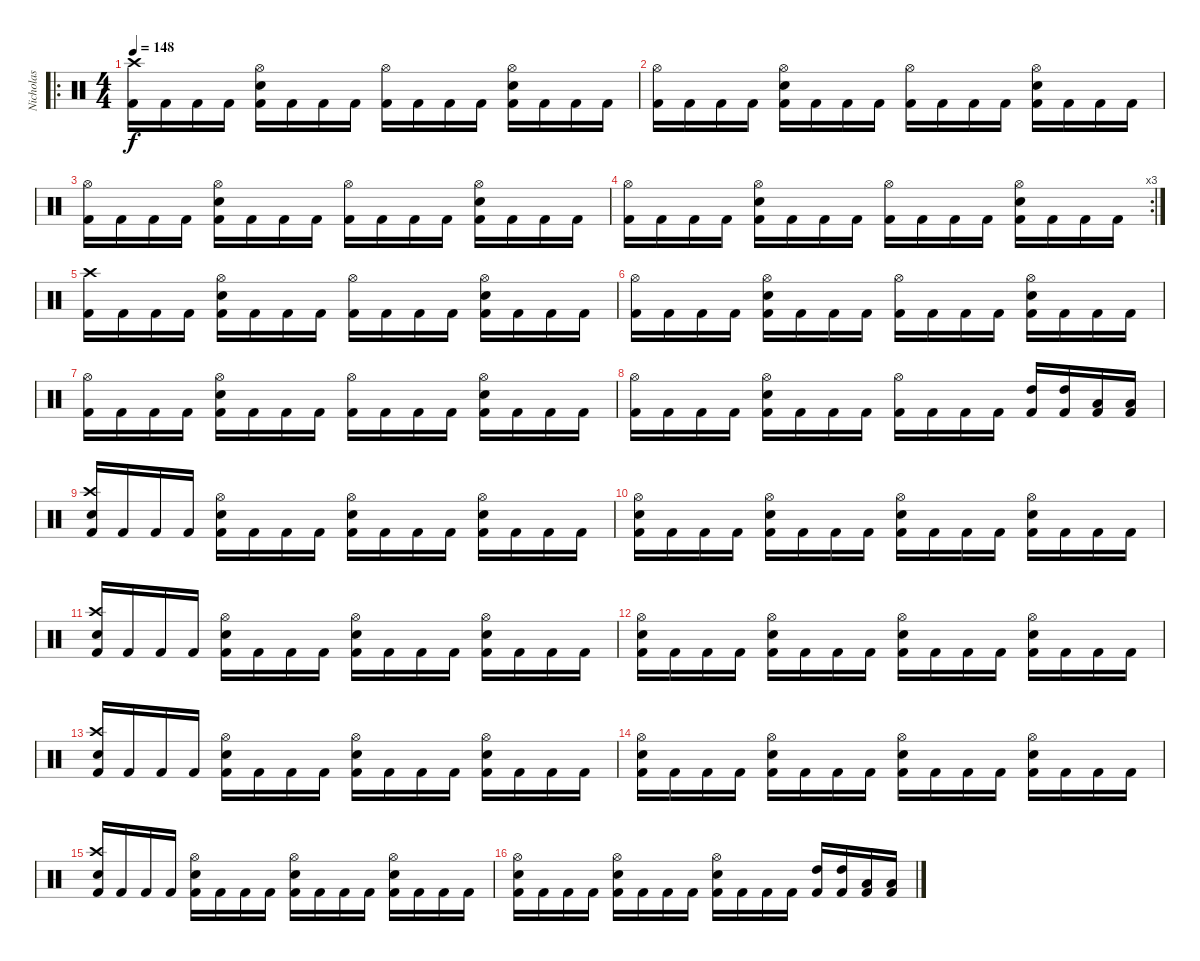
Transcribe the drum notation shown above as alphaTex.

\track ("Nicholas" "Nicholas") {instrument percussion}
\staff {score}
\articulation defaults
\ro
\ts (4 4)
\tempo 148
\clef neutral
\ks c
("Kick (hit) 2" "Crash high (hit)").16{dy f} "Kick (hit) 2".16 "Kick (hit) 2".16 "Kick (hit) 2".16 ("Kick (hit) 2" "Snare (hit) 2" "Hi-Hat (open)").16 "Kick (hit) 2".16 "Kick (hit) 2".16 "Kick (hit) 2".16 ("Kick (hit) 2" "Hi-Hat (open)").16 "Kick (hit) 2".16 "Kick (hit) 2".16 "Kick (hit) 2".16 ("Kick (hit) 2" "Snare (hit) 2" "Hi-Hat (open)").16 "Kick (hit) 2".16 "Kick (hit) 2".16 "Kick (hit) 2".16 |
("Kick (hit) 2" "Hi-Hat (open)").16 "Kick (hit) 2".16 "Kick (hit) 2".16 "Kick (hit) 2".16 ("Kick (hit) 2" "Snare (hit) 2" "Hi-Hat (open)").16 "Kick (hit) 2".16 "Kick (hit) 2".16 "Kick (hit) 2".16 ("Kick (hit) 2" "Hi-Hat (open)").16 "Kick (hit) 2".16 "Kick (hit) 2".16 "Kick (hit) 2".16 ("Kick (hit) 2" "Snare (hit) 2" "Hi-Hat (open)").16 "Kick (hit) 2".16 "Kick (hit) 2".16 "Kick (hit) 2".16 |
("Kick (hit) 2" "Hi-Hat (open)").16 "Kick (hit) 2".16 "Kick (hit) 2".16 "Kick (hit) 2".16 ("Kick (hit) 2" "Snare (hit) 2" "Hi-Hat (open)").16 "Kick (hit) 2".16 "Kick (hit) 2".16 "Kick (hit) 2".16 ("Kick (hit) 2" "Hi-Hat (open)").16 "Kick (hit) 2".16 "Kick (hit) 2".16 "Kick (hit) 2".16 ("Kick (hit) 2" "Snare (hit) 2" "Hi-Hat (open)").16 "Kick (hit) 2".16 "Kick (hit) 2".16 "Kick (hit) 2".16 |
\rc 3
("Kick (hit) 2" "Hi-Hat (open)").16 "Kick (hit) 2".16 "Kick (hit) 2".16 "Kick (hit) 2".16 ("Kick (hit) 2" "Snare (hit) 2" "Hi-Hat (open)").16 "Kick (hit) 2".16 "Kick (hit) 2".16 "Kick (hit) 2".16 ("Kick (hit) 2" "Hi-Hat (open)").16 "Kick (hit) 2".16 "Kick (hit) 2".16 "Kick (hit) 2".16 ("Kick (hit) 2" "Snare (hit) 2" "Hi-Hat (open)").16 "Kick (hit) 2".16 "Kick (hit) 2".16 "Kick (hit) 2".16 |
("Kick (hit) 2" "Crash high (hit)").16 "Kick (hit) 2".16 "Kick (hit) 2".16 "Kick (hit) 2".16 ("Kick (hit) 2" "Snare (hit) 2" "Hi-Hat (open)").16 "Kick (hit) 2".16 "Kick (hit) 2".16 "Kick (hit) 2".16 ("Kick (hit) 2" "Hi-Hat (open)").16 "Kick (hit) 2".16 "Kick (hit) 2".16 "Kick (hit) 2".16 ("Kick (hit) 2" "Snare (hit) 2" "Hi-Hat (open)").16 "Kick (hit) 2".16 "Kick (hit) 2".16 "Kick (hit) 2".16 |
("Kick (hit) 2" "Hi-Hat (open)").16 "Kick (hit) 2".16 "Kick (hit) 2".16 "Kick (hit) 2".16 ("Kick (hit) 2" "Snare (hit) 2" "Hi-Hat (open)").16 "Kick (hit) 2".16 "Kick (hit) 2".16 "Kick (hit) 2".16 ("Kick (hit) 2" "Hi-Hat (open)").16 "Kick (hit) 2".16 "Kick (hit) 2".16 "Kick (hit) 2".16 ("Kick (hit) 2" "Snare (hit) 2" "Hi-Hat (open)").16 "Kick (hit) 2".16 "Kick (hit) 2".16 "Kick (hit) 2".16 |
("Kick (hit) 2" "Hi-Hat (open)").16 "Kick (hit) 2".16 "Kick (hit) 2".16 "Kick (hit) 2".16 ("Kick (hit) 2" "Snare (hit) 2" "Hi-Hat (open)").16 "Kick (hit) 2".16 "Kick (hit) 2".16 "Kick (hit) 2".16 ("Kick (hit) 2" "Hi-Hat (open)").16 "Kick (hit) 2".16 "Kick (hit) 2".16 "Kick (hit) 2".16 ("Kick (hit) 2" "Snare (hit) 2" "Hi-Hat (open)").16 "Kick (hit) 2".16 "Kick (hit) 2".16 "Kick (hit) 2".16 |
("Kick (hit) 2" "Hi-Hat (open)").16 "Kick (hit) 2".16 "Kick (hit) 2".16 "Kick (hit) 2".16 ("Kick (hit) 2" "Snare (hit) 2" "Hi-Hat (open)").16 "Kick (hit) 2".16 "Kick (hit) 2".16 "Kick (hit) 2".16 ("Kick (hit) 2" "Hi-Hat (open)").16 "Kick (hit) 2".16 "Kick (hit) 2".16 "Kick (hit) 2".16 ("Kick (hit) 2" "High Tom (hit)").16 ("Kick (hit) 2" "High Tom (hit)").16 ("Kick (hit) 2" "Low Tom (hit)").16 ("Kick (hit) 2" "Low Tom (hit)").16 |
("Kick (hit) 2" "Snare (hit) 2" "Crash high (hit)").16 "Kick (hit) 2".16 "Kick (hit) 2".16 "Kick (hit) 2".16 ("Kick (hit) 2" "Snare (hit) 2" "Hi-Hat (open)").16 "Kick (hit) 2".16 "Kick (hit) 2".16 "Kick (hit) 2".16 ("Kick (hit) 2" "Snare (hit) 2" "Hi-Hat (open)").16 "Kick (hit) 2".16 "Kick (hit) 2".16 "Kick (hit) 2".16 ("Kick (hit) 2" "Snare (hit) 2" "Hi-Hat (open)").16 "Kick (hit) 2".16 "Kick (hit) 2".16 "Kick (hit) 2".16 |
("Kick (hit) 2" "Snare (hit) 2" "Hi-Hat (open)").16 "Kick (hit) 2".16 "Kick (hit) 2".16 "Kick (hit) 2".16 ("Kick (hit) 2" "Snare (hit) 2" "Hi-Hat (open)").16 "Kick (hit) 2".16 "Kick (hit) 2".16 "Kick (hit) 2".16 ("Kick (hit) 2" "Snare (hit) 2" "Hi-Hat (open)").16 "Kick (hit) 2".16 "Kick (hit) 2".16 "Kick (hit) 2".16 ("Kick (hit) 2" "Snare (hit) 2" "Hi-Hat (open)").16 "Kick (hit) 2".16 "Kick (hit) 2".16 "Kick (hit) 2".16 |
("Kick (hit) 2" "Snare (hit) 2" "Crash high (hit)").16 "Kick (hit) 2".16 "Kick (hit) 2".16 "Kick (hit) 2".16 ("Kick (hit) 2" "Snare (hit) 2" "Hi-Hat (open)").16 "Kick (hit) 2".16 "Kick (hit) 2".16 "Kick (hit) 2".16 ("Kick (hit) 2" "Snare (hit) 2" "Hi-Hat (open)").16 "Kick (hit) 2".16 "Kick (hit) 2".16 "Kick (hit) 2".16 ("Kick (hit) 2" "Snare (hit) 2" "Hi-Hat (open)").16 "Kick (hit) 2".16 "Kick (hit) 2".16 "Kick (hit) 2".16 |
("Kick (hit) 2" "Snare (hit) 2" "Hi-Hat (open)").16 "Kick (hit) 2".16 "Kick (hit) 2".16 "Kick (hit) 2".16 ("Kick (hit) 2" "Snare (hit) 2" "Hi-Hat (open)").16 "Kick (hit) 2".16 "Kick (hit) 2".16 "Kick (hit) 2".16 ("Kick (hit) 2" "Snare (hit) 2" "Hi-Hat (open)").16 "Kick (hit) 2".16 "Kick (hit) 2".16 "Kick (hit) 2".16 ("Kick (hit) 2" "Snare (hit) 2" "Hi-Hat (open)").16 "Kick (hit) 2".16 "Kick (hit) 2".16 "Kick (hit) 2".16 |
("Kick (hit) 2" "Snare (hit) 2" "Crash high (hit)").16 "Kick (hit) 2".16 "Kick (hit) 2".16 "Kick (hit) 2".16 ("Kick (hit) 2" "Snare (hit) 2" "Hi-Hat (open)").16 "Kick (hit) 2".16 "Kick (hit) 2".16 "Kick (hit) 2".16 ("Kick (hit) 2" "Snare (hit) 2" "Hi-Hat (open)").16 "Kick (hit) 2".16 "Kick (hit) 2".16 "Kick (hit) 2".16 ("Kick (hit) 2" "Snare (hit) 2" "Hi-Hat (open)").16 "Kick (hit) 2".16 "Kick (hit) 2".16 "Kick (hit) 2".16 |
("Kick (hit) 2" "Snare (hit) 2" "Hi-Hat (open)").16 "Kick (hit) 2".16 "Kick (hit) 2".16 "Kick (hit) 2".16 ("Kick (hit) 2" "Snare (hit) 2" "Hi-Hat (open)").16 "Kick (hit) 2".16 "Kick (hit) 2".16 "Kick (hit) 2".16 ("Kick (hit) 2" "Snare (hit) 2" "Hi-Hat (open)").16 "Kick (hit) 2".16 "Kick (hit) 2".16 "Kick (hit) 2".16 ("Kick (hit) 2" "Snare (hit) 2" "Hi-Hat (open)").16 "Kick (hit) 2".16 "Kick (hit) 2".16 "Kick (hit) 2".16 |
("Kick (hit) 2" "Snare (hit) 2" "Crash high (hit)").16 "Kick (hit) 2".16 "Kick (hit) 2".16 "Kick (hit) 2".16 ("Kick (hit) 2" "Snare (hit) 2" "Hi-Hat (open)").16 "Kick (hit) 2".16 "Kick (hit) 2".16 "Kick (hit) 2".16 ("Kick (hit) 2" "Snare (hit) 2" "Hi-Hat (open)").16 "Kick (hit) 2".16 "Kick (hit) 2".16 "Kick (hit) 2".16 ("Kick (hit) 2" "Snare (hit) 2" "Hi-Hat (open)").16 "Kick (hit) 2".16 "Kick (hit) 2".16 "Kick (hit) 2".16 |
("Kick (hit) 2" "Snare (hit) 2" "Hi-Hat (open)").16 "Kick (hit) 2".16 "Kick (hit) 2".16 "Kick (hit) 2".16 ("Kick (hit) 2" "Snare (hit) 2" "Hi-Hat (open)").16 "Kick (hit) 2".16 "Kick (hit) 2".16 "Kick (hit) 2".16 ("Kick (hit) 2" "Snare (hit) 2" "Hi-Hat (open)").16 "Kick (hit) 2".16 "Kick (hit) 2".16 "Kick (hit) 2".16 ("Kick (hit) 2" "High Tom (hit)").16 ("Kick (hit) 2" "High Tom (hit)").16 ("Kick (hit) 2" "Low Tom (hit)").16 ("Kick (hit) 2" "Low Tom (hit)").16
